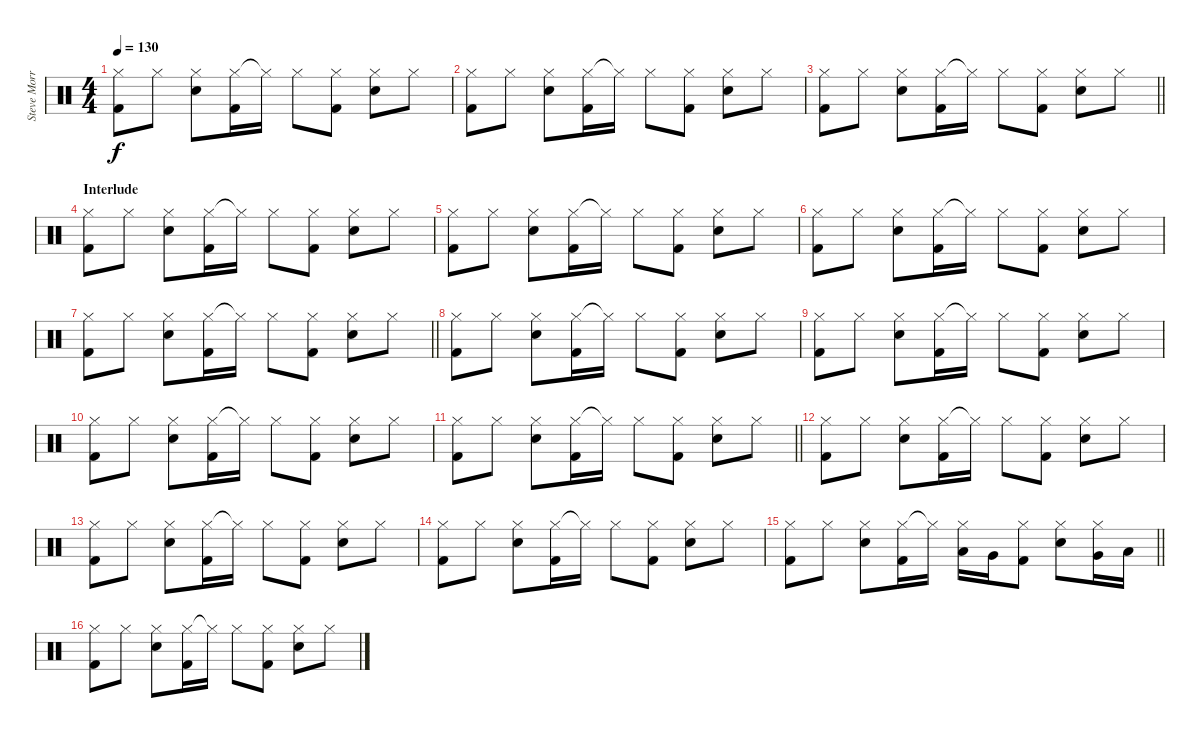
\track ("Steve Morris" "Steve Morr") {instrument percussion}
\staff {score}
\articulation defaults
\ts (4 4)
\tempo 130
\clef neutral
\ks c
("Hi-Hat (closed)" "Kick (hit) 2").8{dy f} "Hi-Hat (closed)".8 ("Hi-Hat (closed)" "Electric Snare (hit)").8 ("Hi-Hat (closed)" "Kick (hit) 2").16 "Hi-Hat (closed)"{t}.16 "Hi-Hat (closed)".8 ("Hi-Hat (closed)" "Kick (hit) 2").8 ("Hi-Hat (closed)" "Electric Snare (hit)").8 "Hi-Hat (closed)".8 |
("Hi-Hat (closed)" "Kick (hit) 2").8 "Hi-Hat (closed)".8 ("Hi-Hat (closed)" "Electric Snare (hit)").8 ("Hi-Hat (closed)" "Kick (hit) 2").16 "Hi-Hat (closed)"{t}.16 "Hi-Hat (closed)".8 ("Hi-Hat (closed)" "Kick (hit) 2").8 ("Hi-Hat (closed)" "Electric Snare (hit)").8 "Hi-Hat (closed)".8 |
\barLineRight lightlight
("Hi-Hat (closed)" "Kick (hit) 2").8 "Hi-Hat (closed)".8 ("Hi-Hat (closed)" "Electric Snare (hit)").8 ("Hi-Hat (closed)" "Kick (hit) 2").16 "Hi-Hat (closed)"{t}.16 "Hi-Hat (closed)".8 ("Hi-Hat (closed)" "Kick (hit) 2").8 ("Hi-Hat (closed)" "Electric Snare (hit)").8 "Hi-Hat (closed)".8 |
\section ("" "Interlude")
("Hi-Hat (closed)" "Kick (hit) 2").8 "Hi-Hat (closed)".8 ("Hi-Hat (closed)" "Electric Snare (hit)").8 ("Hi-Hat (closed)" "Kick (hit) 2").16 "Hi-Hat (closed)"{t}.16 "Hi-Hat (closed)".8 ("Hi-Hat (closed)" "Kick (hit) 2").8 ("Hi-Hat (closed)" "Electric Snare (hit)").8 "Hi-Hat (closed)".8 |
("Hi-Hat (closed)" "Kick (hit) 2").8 "Hi-Hat (closed)".8 ("Hi-Hat (closed)" "Electric Snare (hit)").8 ("Hi-Hat (closed)" "Kick (hit) 2").16 "Hi-Hat (closed)"{t}.16 "Hi-Hat (closed)".8 ("Hi-Hat (closed)" "Kick (hit) 2").8 ("Hi-Hat (closed)" "Electric Snare (hit)").8 "Hi-Hat (closed)".8 |
("Hi-Hat (closed)" "Kick (hit) 2").8 "Hi-Hat (closed)".8 ("Hi-Hat (closed)" "Electric Snare (hit)").8 ("Hi-Hat (closed)" "Kick (hit) 2").16 "Hi-Hat (closed)"{t}.16 "Hi-Hat (closed)".8 ("Hi-Hat (closed)" "Kick (hit) 2").8 ("Hi-Hat (closed)" "Electric Snare (hit)").8 "Hi-Hat (closed)".8 |
\barLineRight lightlight
("Hi-Hat (closed)" "Kick (hit) 2").8 "Hi-Hat (closed)".8 ("Hi-Hat (closed)" "Electric Snare (hit)").8 ("Hi-Hat (closed)" "Kick (hit) 2").16 "Hi-Hat (closed)"{t}.16 "Hi-Hat (closed)".8 ("Hi-Hat (closed)" "Kick (hit) 2").8 ("Hi-Hat (closed)" "Electric Snare (hit)").8 "Hi-Hat (closed)".8 |
("Hi-Hat (closed)" "Kick (hit) 2").8 "Hi-Hat (closed)".8 ("Hi-Hat (closed)" "Electric Snare (hit)").8 ("Hi-Hat (closed)" "Kick (hit) 2").16 "Hi-Hat (closed)"{t}.16 "Hi-Hat (closed)".8 ("Hi-Hat (closed)" "Kick (hit) 2").8 ("Hi-Hat (closed)" "Electric Snare (hit)").8 "Hi-Hat (closed)".8 |
("Hi-Hat (closed)" "Kick (hit) 2").8 "Hi-Hat (closed)".8 ("Hi-Hat (closed)" "Electric Snare (hit)").8 ("Hi-Hat (closed)" "Kick (hit) 2").16 "Hi-Hat (closed)"{t}.16 "Hi-Hat (closed)".8 ("Hi-Hat (closed)" "Kick (hit) 2").8 ("Hi-Hat (closed)" "Electric Snare (hit)").8 "Hi-Hat (closed)".8 |
("Hi-Hat (closed)" "Kick (hit) 2").8 "Hi-Hat (closed)".8 ("Hi-Hat (closed)" "Electric Snare (hit)").8 ("Hi-Hat (closed)" "Kick (hit) 2").16 "Hi-Hat (closed)"{t}.16 "Hi-Hat (closed)".8 ("Hi-Hat (closed)" "Kick (hit) 2").8 ("Hi-Hat (closed)" "Electric Snare (hit)").8 "Hi-Hat (closed)".8 |
\barLineRight lightlight
("Hi-Hat (closed)" "Kick (hit) 2").8 "Hi-Hat (closed)".8 ("Hi-Hat (closed)" "Electric Snare (hit)").8 ("Hi-Hat (closed)" "Kick (hit) 2").16 "Hi-Hat (closed)"{t}.16 "Hi-Hat (closed)".8 ("Hi-Hat (closed)" "Kick (hit) 2").8 ("Hi-Hat (closed)" "Electric Snare (hit)").8 "Hi-Hat (closed)".8 |
("Hi-Hat (closed)" "Kick (hit) 2").8 "Hi-Hat (closed)".8 ("Hi-Hat (closed)" "Electric Snare (hit)").8 ("Hi-Hat (closed)" "Kick (hit) 2").16 "Hi-Hat (closed)"{t}.16 "Hi-Hat (closed)".8 ("Hi-Hat (closed)" "Kick (hit) 2").8 ("Hi-Hat (closed)" "Electric Snare (hit)").8 "Hi-Hat (closed)".8 |
("Hi-Hat (closed)" "Kick (hit) 2").8 "Hi-Hat (closed)".8 ("Hi-Hat (closed)" "Electric Snare (hit)").8 ("Hi-Hat (closed)" "Kick (hit) 2").16 "Hi-Hat (closed)"{t}.16 "Hi-Hat (closed)".8 ("Hi-Hat (closed)" "Kick (hit) 2").8 ("Hi-Hat (closed)" "Electric Snare (hit)").8 "Hi-Hat (closed)".8 |
("Hi-Hat (closed)" "Kick (hit) 2").8 "Hi-Hat (closed)".8 ("Hi-Hat (closed)" "Electric Snare (hit)").8 ("Hi-Hat (closed)" "Kick (hit) 2").16 "Hi-Hat (closed)"{t}.16 "Hi-Hat (closed)".8 ("Hi-Hat (closed)" "Kick (hit) 2").8 ("Hi-Hat (closed)" "Electric Snare (hit)").8 "Hi-Hat (closed)".8 |
\barLineRight lightlight
("Hi-Hat (closed)" "Kick (hit) 2").8 "Hi-Hat (closed)".8 ("Hi-Hat (closed)" "Electric Snare (hit)").8 ("Hi-Hat (closed)" "Kick (hit) 2").16 "Hi-Hat (closed)"{t}.16 ("Hi-Hat (closed)" "Low Tom (hit)").16 "Very Low Tom (hit)".16 ("Hi-Hat (closed)" "Kick (hit) 2").8 ("Hi-Hat (closed)" "Electric Snare (hit)").8 ("Hi-Hat (closed)" "Very Low Tom (hit)").16 "Low Floor Tom (hit)".16 |
("Hi-Hat (closed)" "Kick (hit) 2").8 "Hi-Hat (closed)".8 ("Hi-Hat (closed)" "Electric Snare (hit)").8 ("Hi-Hat (closed)" "Kick (hit) 2").16 "Hi-Hat (closed)"{t}.16 "Hi-Hat (closed)".8 ("Hi-Hat (closed)" "Kick (hit) 2").8 ("Hi-Hat (closed)" "Electric Snare (hit)").8 "Hi-Hat (closed)".8
